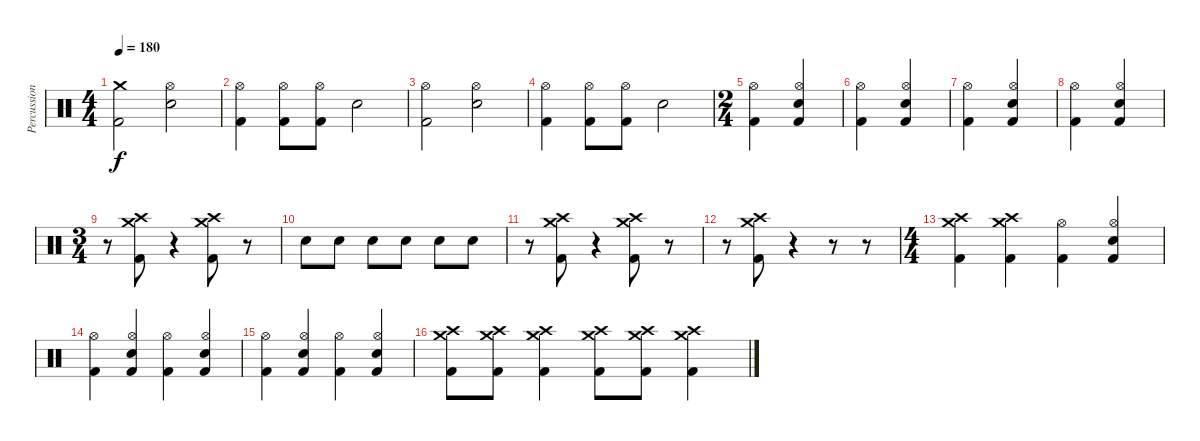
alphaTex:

\track ("Percussion" "Percussion") {instrument percussion}
\staff {score}
\articulation defaults
\ts (4 4)
\tempo 180
\clef neutral
\ks c
("Crash medium (hit)" "Kick (hit) 2").2{dy f} ("Hi-Hat (open)" "Snare (hit) 2").2 |
("Hi-Hat (open)" "Kick (hit) 2").4 ("Hi-Hat (open)" "Kick (hit) 2").8 ("Hi-Hat (open)" "Kick (hit) 2").8 "Snare (hit) 2".2 |
("Hi-Hat (open)" "Kick (hit) 2").2 ("Hi-Hat (open)" "Snare (hit) 2").2 |
("Hi-Hat (open)" "Kick (hit) 2").4 ("Hi-Hat (open)" "Kick (hit) 2").8 ("Hi-Hat (open)" "Kick (hit) 2").8 "Snare (hit) 2".2 |
\ts (2 4)
("Hi-Hat (open)" "Kick (hit) 2").4 ("Hi-Hat (open)" "Snare (hit) 2" "Kick (hit) 2").4 |
("Hi-Hat (open)" "Kick (hit) 2").4 ("Hi-Hat (open)" "Snare (hit) 2" "Kick (hit) 2").4 |
("Hi-Hat (open)" "Kick (hit) 2").4 ("Hi-Hat (open)" "Snare (hit) 2" "Kick (hit) 2").4 |
("Hi-Hat (open)" "Kick (hit) 2").4 ("Hi-Hat (open)" "Snare (hit) 2" "Kick (hit) 2").4 |
\ts (3 4)
r.8 ("Crash medium (hit)" "Crash high (hit)" "Kick (hit) 2").8 r.4 ("Crash medium (hit)" "Crash high (hit)" "Kick (hit) 2").8 r.8 |
"Snare (hit) 2".8 "Snare (hit) 2".8 "Snare (hit) 2".8 "Snare (hit) 2".8 "Snare (hit) 2".8 "Snare (hit) 2".8 |
r.8 ("Crash medium (hit)" "Crash high (hit)" "Kick (hit) 2").8 r.4 ("Crash medium (hit)" "Crash high (hit)" "Kick (hit) 2").8 r.8 |
r.8 ("Crash medium (hit)" "Crash high (hit)" "Kick (hit) 2").8 r.4 r.8 r.8 |
\ts (4 4)
("Crash medium (hit)" "Crash high (hit)" "Kick (hit) 2").4 ("Crash medium (hit)" "Crash high (hit)" "Kick (hit) 2").4 ("Hi-Hat (open)" "Kick (hit) 2").4 ("Hi-Hat (open)" "Snare (hit) 2" "Kick (hit) 2").4 |
("Hi-Hat (open)" "Kick (hit) 2").4 ("Hi-Hat (open)" "Snare (hit) 2" "Kick (hit) 2").4 ("Hi-Hat (open)" "Kick (hit) 2").4 ("Hi-Hat (open)" "Snare (hit) 2" "Kick (hit) 2").4 |
("Hi-Hat (open)" "Kick (hit) 2").4 ("Hi-Hat (open)" "Snare (hit) 2" "Kick (hit) 2").4 ("Hi-Hat (open)" "Kick (hit) 2").4 ("Hi-Hat (open)" "Snare (hit) 2" "Kick (hit) 2").4 |
("Crash high (hit)" "Crash medium (hit)" "Kick (hit) 2").8 ("Crash high (hit)" "Crash medium (hit)" "Kick (hit) 2").8 ("Crash high (hit)" "Crash medium (hit)" "Kick (hit) 2").4 ("Crash high (hit)" "Crash medium (hit)" "Kick (hit) 2").8 ("Crash high (hit)" "Crash medium (hit)" "Kick (hit) 2").8 ("Crash high (hit)" "Crash medium (hit)" "Kick (hit) 2").4
